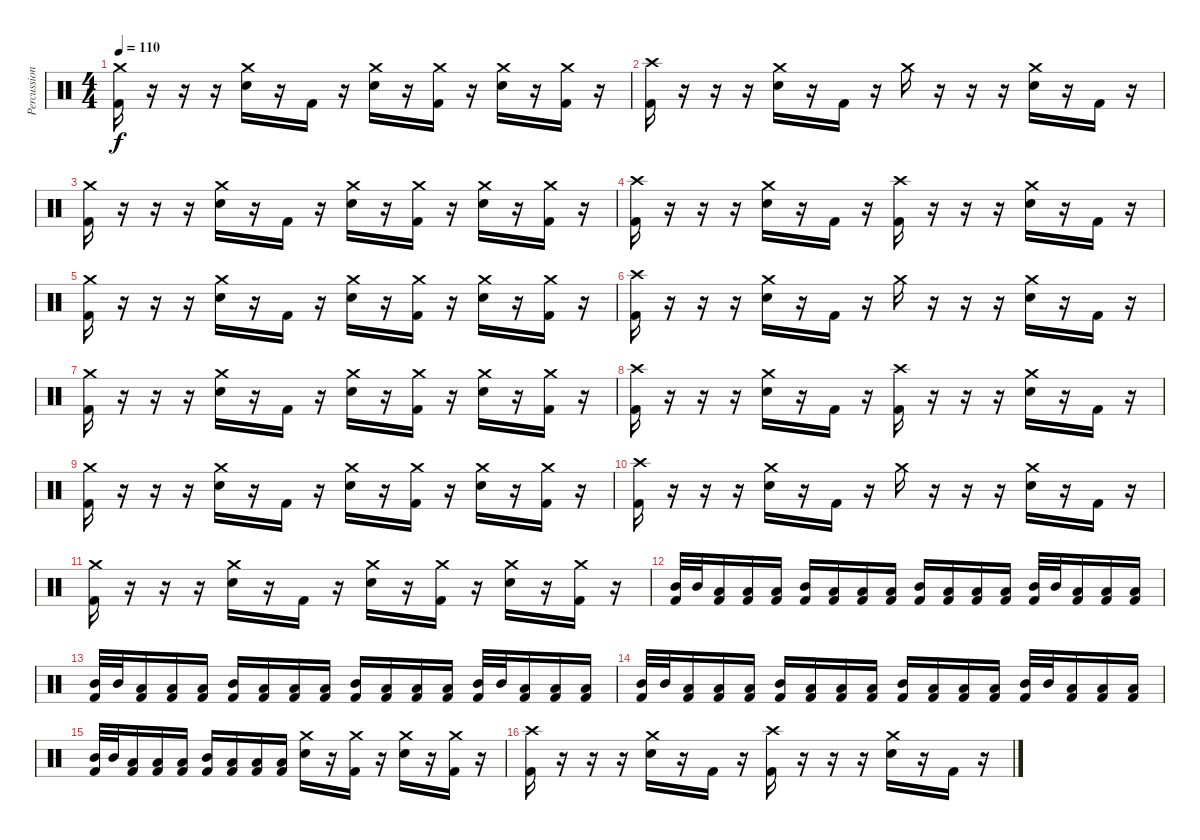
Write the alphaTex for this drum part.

\track ("Percussion" "Percussion") {instrument percussion}
\staff {score}
\articulation defaults
\ts (4 4)
\tempo 110
\clef neutral
\ks c
("Crash medium (hit)" "Kick (hit) 2").16{dy f} r.16 r.16 r.16 ("Crash medium (hit)" "Electric Snare (hit)").16 r.16 "Kick (hit) 2".16 r.16 ("Crash medium (hit)" "Electric Snare (hit)").16 r.16 ("Crash medium (hit)" "Kick (hit) 2").16 r.16 ("Crash medium (hit)" "Electric Snare (hit)").16 r.16 ("Crash medium (hit)" "Kick (hit) 2").16 r.16 |
("Crash high (hit)" "Kick (hit) 2").16 r.16 r.16 r.16 ("Crash medium (hit)" "Electric Snare (hit)").16 r.16 "Kick (hit) 2".16 r.16 "Crash medium (hit)".16 r.16 r.16 r.16 ("Crash medium (hit)" "Electric Snare (hit)").16 r.16 "Kick (hit) 2".16 r.16 |
("Crash medium (hit)" "Kick (hit) 2").16 r.16 r.16 r.16 ("Crash medium (hit)" "Electric Snare (hit)").16 r.16 "Kick (hit) 2".16 r.16 ("Crash medium (hit)" "Electric Snare (hit)").16 r.16 ("Crash medium (hit)" "Kick (hit) 2").16 r.16 ("Crash medium (hit)" "Electric Snare (hit)").16 r.16 ("Crash medium (hit)" "Kick (hit) 2").16 r.16 |
("Crash high (hit)" "Kick (hit) 2").16 r.16 r.16 r.16 ("Crash medium (hit)" "Electric Snare (hit)").16 r.16 "Kick (hit) 2".16 r.16 ("Crash high (hit)" "Kick (hit) 2").16 r.16 r.16 r.16 ("Crash medium (hit)" "Electric Snare (hit)").16 r.16 "Kick (hit) 2".16 r.16 |
("Crash medium (hit)" "Kick (hit) 2").16 r.16 r.16 r.16 ("Crash medium (hit)" "Electric Snare (hit)").16 r.16 "Kick (hit) 2".16 r.16 ("Crash medium (hit)" "Electric Snare (hit)").16 r.16 ("Crash medium (hit)" "Kick (hit) 2").16 r.16 ("Crash medium (hit)" "Electric Snare (hit)").16 r.16 ("Crash medium (hit)" "Kick (hit) 2").16 r.16 |
("Crash high (hit)" "Kick (hit) 2").16 r.16 r.16 r.16 ("Crash medium (hit)" "Electric Snare (hit)").16 r.16 "Kick (hit) 2".16 r.16 "Crash medium (hit)".16 r.16 r.16 r.16 ("Crash medium (hit)" "Electric Snare (hit)").16 r.16 "Kick (hit) 2".16 r.16 |
("Crash medium (hit)" "Kick (hit) 2").16 r.16 r.16 r.16 ("Crash medium (hit)" "Electric Snare (hit)").16 r.16 "Kick (hit) 2".16 r.16 ("Crash medium (hit)" "Electric Snare (hit)").16 r.16 ("Crash medium (hit)" "Kick (hit) 2").16 r.16 ("Crash medium (hit)" "Electric Snare (hit)").16 r.16 ("Crash medium (hit)" "Kick (hit) 2").16 r.16 |
("Crash high (hit)" "Kick (hit) 2").16 r.16 r.16 r.16 ("Crash medium (hit)" "Electric Snare (hit)").16 r.16 "Kick (hit) 2".16 r.16 ("Crash high (hit)" "Kick (hit) 2").16 r.16 r.16 r.16 ("Crash medium (hit)" "Electric Snare (hit)").16 r.16 "Kick (hit) 2".16 r.16 |
("Crash medium (hit)" "Kick (hit) 2").16 r.16 r.16 r.16 ("Crash medium (hit)" "Electric Snare (hit)").16 r.16 "Kick (hit) 2".16 r.16 ("Crash medium (hit)" "Electric Snare (hit)").16 r.16 ("Crash medium (hit)" "Kick (hit) 2").16 r.16 ("Crash medium (hit)" "Electric Snare (hit)").16 r.16 ("Crash medium (hit)" "Kick (hit) 2").16 r.16 |
("Crash high (hit)" "Kick (hit) 2").16 r.16 r.16 r.16 ("Crash medium (hit)" "Electric Snare (hit)").16 r.16 "Kick (hit) 2".16 r.16 "Crash medium (hit)".16 r.16 r.16 r.16 ("Crash medium (hit)" "Electric Snare (hit)").16 r.16 "Kick (hit) 2".16 r.16 |
("Crash medium (hit)" "Kick (hit) 2").16 r.16 r.16 r.16 ("Crash medium (hit)" "Electric Snare (hit)").16 r.16 "Kick (hit) 2".16 r.16 ("Crash medium (hit)" "Electric Snare (hit)").16 r.16 ("Crash medium (hit)" "Kick (hit) 2").16 r.16 ("Crash medium (hit)" "Electric Snare (hit)").16 r.16 ("Crash medium (hit)" "Kick (hit) 2").16 r.16 |
("Mid Tom (hit)" "Kick (hit) 2").32 "Mid Tom (hit)".32 ("Low Tom (hit)" "Kick (hit) 2").16 ("Low Floor Tom (hit)" "Kick (hit) 2").16 ("Low Floor Tom (hit)" "Kick (hit) 2").16 ("Mid Tom (hit)" "Kick (hit) 2").16 ("Low Tom (hit)" "Kick (hit) 2").16 ("Low Floor Tom (hit)" "Kick (hit) 2").16 ("Low Floor Tom (hit)" "Kick (hit) 2").16 ("Mid Tom (hit)" "Kick (hit) 2").16 ("Low Tom (hit)" "Kick (hit) 2").16 ("Low Floor Tom (hit)" "Kick (hit) 2").16 ("Low Floor Tom (hit)" "Kick (hit) 2").16 ("Mid Tom (hit)" "Kick (hit) 2").32 "Mid Tom (hit)".32 ("Low Tom (hit)" "Kick (hit) 2").16 ("Low Floor Tom (hit)" "Kick (hit) 2").16 ("Low Floor Tom (hit)" "Kick (hit) 2").16 |
("Mid Tom (hit)" "Kick (hit) 2").32 "Mid Tom (hit)".32 ("Low Tom (hit)" "Kick (hit) 2").16 ("Low Floor Tom (hit)" "Kick (hit) 2").16 ("Low Floor Tom (hit)" "Kick (hit) 2").16 ("Mid Tom (hit)" "Kick (hit) 2").16 ("Low Tom (hit)" "Kick (hit) 2").16 ("Low Floor Tom (hit)" "Kick (hit) 2").16 ("Low Floor Tom (hit)" "Kick (hit) 2").16 ("Mid Tom (hit)" "Kick (hit) 2").16 ("Low Tom (hit)" "Kick (hit) 2").16 ("Low Floor Tom (hit)" "Kick (hit) 2").16 ("Low Floor Tom (hit)" "Kick (hit) 2").16 ("Mid Tom (hit)" "Kick (hit) 2").32 "Mid Tom (hit)".32 ("Low Tom (hit)" "Kick (hit) 2").16 ("Low Floor Tom (hit)" "Kick (hit) 2").16 ("Low Floor Tom (hit)" "Kick (hit) 2").16 |
("Mid Tom (hit)" "Kick (hit) 2").32 "Mid Tom (hit)".32 ("Low Tom (hit)" "Kick (hit) 2").16 ("Low Floor Tom (hit)" "Kick (hit) 2").16 ("Low Floor Tom (hit)" "Kick (hit) 2").16 ("Mid Tom (hit)" "Kick (hit) 2").16 ("Low Tom (hit)" "Kick (hit) 2").16 ("Low Floor Tom (hit)" "Kick (hit) 2").16 ("Low Floor Tom (hit)" "Kick (hit) 2").16 ("Mid Tom (hit)" "Kick (hit) 2").16 ("Low Tom (hit)" "Kick (hit) 2").16 ("Low Floor Tom (hit)" "Kick (hit) 2").16 ("Low Floor Tom (hit)" "Kick (hit) 2").16 ("Mid Tom (hit)" "Kick (hit) 2").32 "Mid Tom (hit)".32 ("Low Tom (hit)" "Kick (hit) 2").16 ("Low Floor Tom (hit)" "Kick (hit) 2").16 ("Low Floor Tom (hit)" "Kick (hit) 2").16 |
("Mid Tom (hit)" "Kick (hit) 2").32 "Mid Tom (hit)".32 ("Low Tom (hit)" "Kick (hit) 2").16 ("Low Floor Tom (hit)" "Kick (hit) 2").16 ("Low Floor Tom (hit)" "Kick (hit) 2").16 ("Mid Tom (hit)" "Kick (hit) 2").16 ("Low Tom (hit)" "Kick (hit) 2").16 ("Low Floor Tom (hit)" "Kick (hit) 2").16 ("Low Floor Tom (hit)" "Kick (hit) 2").16 ("Crash medium (hit)" "Electric Snare (hit)").16 r.16 ("Crash medium (hit)" "Kick (hit) 2").16 r.16 ("Crash medium (hit)" "Electric Snare (hit)").16 r.16 ("Crash medium (hit)" "Kick (hit) 2").16 r.16 |
("Crash high (hit)" "Kick (hit) 2").16 r.16 r.16 r.16 ("Crash medium (hit)" "Electric Snare (hit)").16 r.16 "Kick (hit) 2".16 r.16 ("Crash high (hit)" "Kick (hit) 2").16 r.16 r.16 r.16 ("Crash medium (hit)" "Electric Snare (hit)").16 r.16 "Kick (hit) 2".16 r.16
